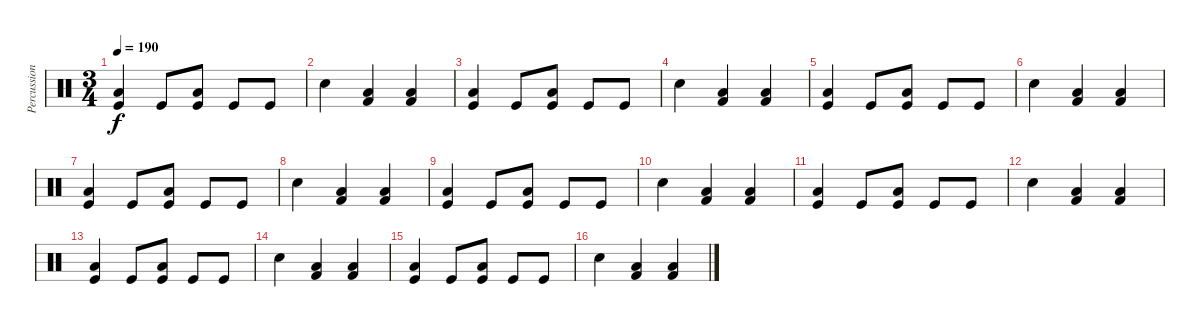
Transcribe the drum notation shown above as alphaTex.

\track ("Percussion" "Percussion") {instrument percussion}
\staff {score}
\articulation defaults
\ts (3 4)
\tempo 190
\clef neutral
\ks c
("Kick (hit)" "Low Floor Tom (hit)").4{dy f} "Kick (hit)".8 ("Kick (hit)" "Low Tom (hit)").8 "Kick (hit)".8 "Kick (hit)".8 |
"Snare (hit) 2".4 ("Kick (hit) 2" "Low Floor Tom (hit)").4 ("Kick (hit) 2" "Low Floor Tom (hit)").4 |
("Kick (hit)" "Low Floor Tom (hit)").4 "Kick (hit)".8 ("Kick (hit)" "Low Tom (hit)").8 "Kick (hit)".8 "Kick (hit)".8 |
"Snare (hit) 2".4 ("Kick (hit) 2" "Low Floor Tom (hit)").4 ("Kick (hit) 2" "Low Floor Tom (hit)").4 |
("Kick (hit)" "Low Floor Tom (hit)").4 "Kick (hit)".8 ("Kick (hit)" "Low Tom (hit)").8 "Kick (hit)".8 "Kick (hit)".8 |
"Snare (hit) 2".4 ("Kick (hit) 2" "Low Floor Tom (hit)").4 ("Kick (hit) 2" "Low Floor Tom (hit)").4 |
("Kick (hit)" "Low Floor Tom (hit)").4 "Kick (hit)".8 ("Kick (hit)" "Low Tom (hit)").8 "Kick (hit)".8 "Kick (hit)".8 |
"Snare (hit) 2".4 ("Kick (hit) 2" "Low Floor Tom (hit)").4 ("Kick (hit) 2" "Low Floor Tom (hit)").4 |
("Kick (hit)" "Low Floor Tom (hit)").4 "Kick (hit)".8 ("Kick (hit)" "Low Tom (hit)").8 "Kick (hit)".8 "Kick (hit)".8 |
"Snare (hit) 2".4 ("Kick (hit) 2" "Low Floor Tom (hit)").4 ("Kick (hit) 2" "Low Floor Tom (hit)").4 |
("Kick (hit)" "Low Floor Tom (hit)").4 "Kick (hit)".8 ("Kick (hit)" "Low Tom (hit)").8 "Kick (hit)".8 "Kick (hit)".8 |
"Snare (hit) 2".4 ("Kick (hit) 2" "Low Floor Tom (hit)").4 ("Kick (hit) 2" "Low Floor Tom (hit)").4 |
("Kick (hit)" "Low Floor Tom (hit)").4 "Kick (hit)".8 ("Kick (hit)" "Low Tom (hit)").8 "Kick (hit)".8 "Kick (hit)".8 |
"Snare (hit) 2".4 ("Kick (hit) 2" "Low Floor Tom (hit)").4 ("Kick (hit) 2" "Low Floor Tom (hit)").4 |
("Kick (hit)" "Low Floor Tom (hit)").4 "Kick (hit)".8 ("Kick (hit)" "Low Tom (hit)").8 "Kick (hit)".8 "Kick (hit)".8 |
"Snare (hit) 2".4 ("Kick (hit) 2" "Low Floor Tom (hit)").4 ("Kick (hit) 2" "Low Floor Tom (hit)").4
